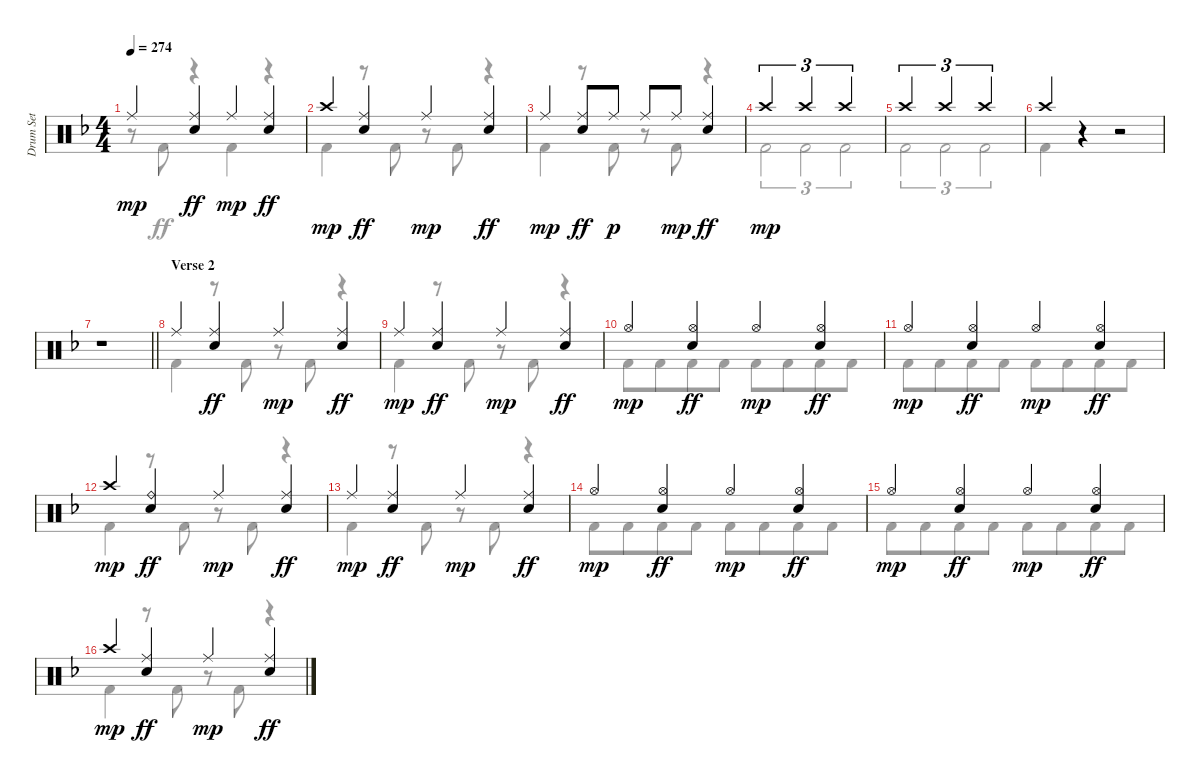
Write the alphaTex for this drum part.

\track ("Drum Set" "Drum Set") {instrument percussion}
\staff {score}
\articulation defaults
\voice
\ts (4 4)
\tempo 274
\clef neutral
\ks dminor "Ride (middle)".4{dy mp}
("Ride (middle)" "Electric Snare (hit)").4{dy ff} "Ride (middle)".4{dy mp} ("Ride (middle)" "Electric Snare (hit)").4{dy ff} |
"Crash high (hit)".4{dy mp} ("Ride (middle)" "Electric Snare (hit)").4{dy ff} "Ride (middle)".4{dy mp} ("Ride (middle)" "Electric Snare (hit)").4{dy ff} |
"Ride (middle)".4{dy mp} ("Ride (middle)" "Electric Snare (hit)").8{dy ff} "Ride (middle)".8{dy p} "Ride (middle)".8 "Ride (middle)".8{dy mp} ("Ride (middle)" "Electric Snare (hit)").4{dy ff} |
"Crash high (hit)".2{tu (3 2) dy mp} "Crash high (hit)".2{tu (3 2)} "Crash high (hit)".2{tu (3 2)} |
"Crash high (hit)".2{tu (3 2)} "Crash high (hit)".2{tu (3 2)} "Crash high (hit)".2{tu (3 2)} |
"Crash high (hit)".4 r.4 r.2 |
\barLineRight lightlight
r.1 |
\section ("" "Verse 2")
"Ride (middle)".4 ("Ride (middle)" "Electric Snare (hit)").4{dy ff} "Ride (middle)".4{dy mp} ("Ride (middle)" "Electric Snare (hit)").4{dy ff} |
"Ride (middle)".4{dy mp} ("Ride (middle)" "Electric Snare (hit)").4{dy ff} "Ride (middle)".4{dy mp} ("Ride (middle)" "Electric Snare (hit)").4{dy ff} |
"Hi-Hat (open)".4{dy mp} ("Hi-Hat (open)" "Electric Snare (hit)").4{dy ff} "Hi-Hat (open)".4{dy mp} ("Hi-Hat (open)" "Electric Snare (hit)").4{dy ff} |
"Hi-Hat (open)".4{dy mp} ("Hi-Hat (open)" "Electric Snare (hit)").4{dy ff} "Hi-Hat (open)".4{dy mp} ("Hi-Hat (open)" "Electric Snare (hit)").4{dy ff} |
"Crash high (hit)".4{dy mp} ("Ride (bell)" "Electric Snare (hit)").4{dy ff} "Ride (middle)".4{dy mp} ("Ride (middle)" "Electric Snare (hit)").4{dy ff} |
"Ride (middle)".4{dy mp} ("Ride (middle)" "Electric Snare (hit)").4{dy ff} "Ride (middle)".4{dy mp} ("Ride (middle)" "Electric Snare (hit)").4{dy ff} |
"Hi-Hat (open)".4{dy mp} ("Hi-Hat (open)" "Electric Snare (hit)").4{dy ff} "Hi-Hat (open)".4{dy mp} ("Hi-Hat (open)" "Electric Snare (hit)").4{dy ff} |
"Hi-Hat (open)".4{dy mp} ("Hi-Hat (open)" "Electric Snare (hit)").4{dy ff} "Hi-Hat (open)".4{dy mp} ("Hi-Hat (open)" "Electric Snare (hit)").4{dy ff} |
"Crash high (hit)".4{dy mp} ("Ride (middle)" "Electric Snare (hit)").4{dy ff} "Ride (middle)".4{dy mp} ("Ride (middle)" "Electric Snare (hit)").4{dy ff}
\voice
\clef neutral
\ottava regular
\simile none
\ks dminor
r.8{dy ff} "Kick (hit) 2".8 r.4 "Kick (hit) 2".4 r.4 |
"Kick (hit) 2".4 r.8 "Kick (hit) 2".8 r.8 "Kick (hit) 2".8 r.4 |
"Kick (hit) 2".4 r.8 "Kick (hit) 2".8 r.8 "Kick (hit) 2".8 r.4 |
"Kick (hit) 2".2{tu (3 2)} "Kick (hit) 2".2{tu (3 2)} "Kick (hit) 2".2{tu (3 2)} |
"Kick (hit) 2".2{tu (3 2)} "Kick (hit) 2".2{tu (3 2)} "Kick (hit) 2".2{tu (3 2)} |
"Kick (hit) 2".4 r.4 r.2 |
\barLineRight lightlight
|
"Kick (hit) 2".4 r.8 "Kick (hit) 2".8 r.8 "Kick (hit) 2".8 r.4 |
"Kick (hit) 2".4 r.8 "Kick (hit) 2".8 r.8 "Kick (hit) 2".8 r.4 |
"Kick (hit) 2".8 "Kick (hit) 2".8{beam merge} "Kick (hit) 2".8 "Kick (hit) 2".8 "Kick (hit) 2".8 "Kick (hit) 2".8{beam merge} "Kick (hit) 2".8 "Kick (hit) 2".8 |
"Kick (hit) 2".8 "Kick (hit) 2".8{beam merge} "Kick (hit) 2".8 "Kick (hit) 2".8 "Kick (hit) 2".8 "Kick (hit) 2".8{beam merge} "Kick (hit) 2".8 "Kick (hit) 2".8 |
"Kick (hit) 2".4 r.8 "Kick (hit) 2".8 r.8 "Kick (hit) 2".8 r.4 |
"Kick (hit) 2".4 r.8 "Kick (hit) 2".8 r.8 "Kick (hit) 2".8 r.4 |
"Kick (hit) 2".8 "Kick (hit) 2".8{beam merge} "Kick (hit) 2".8 "Kick (hit) 2".8 "Kick (hit) 2".8 "Kick (hit) 2".8{beam merge} "Kick (hit) 2".8 "Kick (hit) 2".8 |
"Kick (hit) 2".8 "Kick (hit) 2".8{beam merge} "Kick (hit) 2".8 "Kick (hit) 2".8 "Kick (hit) 2".8 "Kick (hit) 2".8{beam merge} "Kick (hit) 2".8 "Kick (hit) 2".8 |
"Kick (hit) 2".4 r.8 "Kick (hit) 2".8 r.8 "Kick (hit) 2".8 r.4
